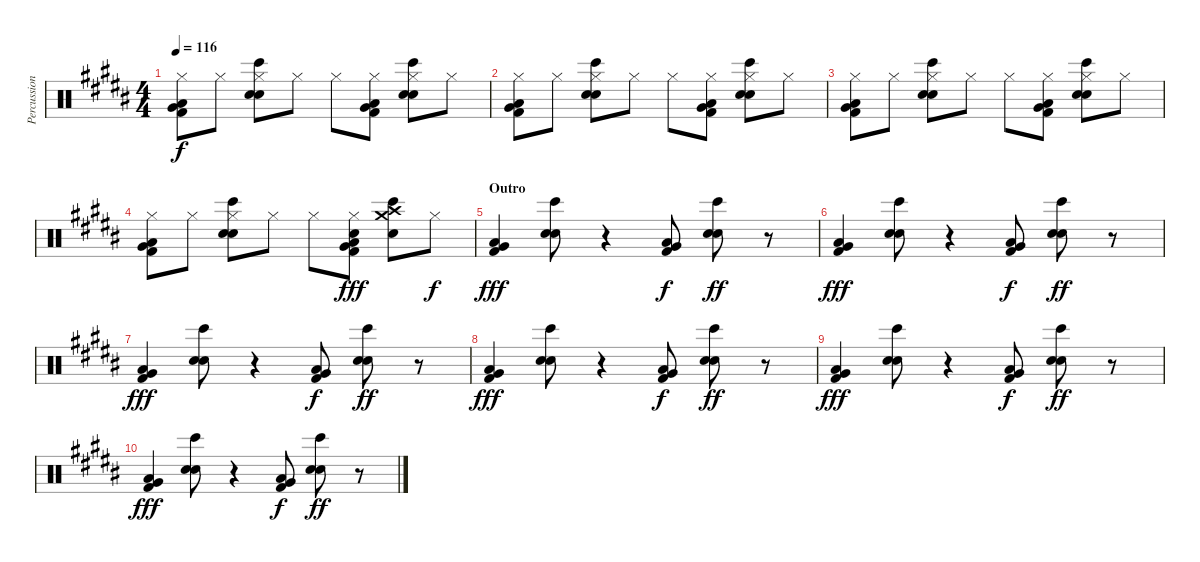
\track ("Percussion" "Percussion") {instrument percussion}
\staff {score}
\articulation defaults
\ts (4 4)
\tempo 116
\clef neutral
\ks b
("Low Tom (hit)" "Very Low Tom (hit)" "Kick (hit) 2" "Hi-Hat (closed)").8{dy f} "Hi-Hat (closed)".8 ("Bongo High (hit)" "Hand Clap (hit)" "Snare (hit) 2" "Hi-Hat (closed)").8 "Hi-Hat (closed)".8 "Hi-Hat (closed)".8 ("Low Tom (hit)" "Very Low Tom (hit)" "Kick (hit) 2" "Hi-Hat (closed)").8 ("Bongo High (hit)" "Hand Clap (hit)" "Snare (hit) 2" "Hi-Hat (closed)").8 "Hi-Hat (closed)".8 |
("Low Tom (hit)" "Very Low Tom (hit)" "Kick (hit) 2" "Hi-Hat (closed)").8 "Hi-Hat (closed)".8 ("Bongo High (hit)" "Hand Clap (hit)" "Snare (hit) 2" "Hi-Hat (closed)").8 "Hi-Hat (closed)".8 "Hi-Hat (closed)".8 ("Low Tom (hit)" "Very Low Tom (hit)" "Kick (hit) 2" "Hi-Hat (closed)").8 ("Bongo High (hit)" "Hand Clap (hit)" "Snare (hit) 2" "Hi-Hat (closed)").8 "Hi-Hat (closed)".8 |
("Low Tom (hit)" "Very Low Tom (hit)" "Kick (hit) 2" "Hi-Hat (closed)").8 "Hi-Hat (closed)".8 ("Bongo High (hit)" "Hand Clap (hit)" "Snare (hit) 2" "Hi-Hat (closed)").8 "Hi-Hat (closed)".8 "Hi-Hat (closed)".8 ("Low Tom (hit)" "Very Low Tom (hit)" "Kick (hit) 2" "Hi-Hat (closed)").8 ("Bongo High (hit)" "Hand Clap (hit)" "Snare (hit) 2" "Hi-Hat (closed)").8 "Hi-Hat (closed)".8 |
("Low Tom (hit)" "Very Low Tom (hit)" "Kick (hit) 2" "Hi-Hat (closed)").8 "Hi-Hat (closed)".8 ("Bongo High (hit)" "Hand Clap (hit)" "Snare (hit) 2" "Hi-Hat (closed)").8 "Hi-Hat (closed)".8 "Hi-Hat (closed)".8 ("Low Tom (hit)" "Very Low Tom (hit)" "Kick (hit) 2" "Hi-Hat (closed)" "Hand Clap (hit)").8{dy fff} ("Bongo High (hit)" "Hand Clap (hit)" "Crash medium (hit)" "Crash high (hit)").8 "Hi-Hat (closed)".8{dy f} |
\section ("" "Outro")
("Low Tom (hit)" "Very Low Tom (hit)" "Kick (hit) 2").4{dy fff} ("Bongo High (hit)" "Hand Clap (hit)" "Hand Clap (hit)").8 r.4 ("Low Tom (hit)" "Very Low Tom (hit)" "Kick (hit) 2").8{dy f} ("Bongo High (hit)" "Hand Clap (hit)" "Hand Clap (hit)").8{dy ff} r.8 |
("Low Tom (hit)" "Very Low Tom (hit)" "Kick (hit) 2").4{dy fff} ("Bongo High (hit)" "Hand Clap (hit)" "Hand Clap (hit)").8 r.4 ("Low Tom (hit)" "Very Low Tom (hit)" "Kick (hit) 2").8{dy f} ("Bongo High (hit)" "Hand Clap (hit)" "Hand Clap (hit)").8{dy ff} r.8 |
("Low Tom (hit)" "Very Low Tom (hit)" "Kick (hit) 2").4{dy fff} ("Bongo High (hit)" "Hand Clap (hit)" "Hand Clap (hit)").8 r.4 ("Low Tom (hit)" "Very Low Tom (hit)" "Kick (hit) 2").8{dy f} ("Bongo High (hit)" "Hand Clap (hit)" "Hand Clap (hit)").8{dy ff} r.8 |
("Low Tom (hit)" "Very Low Tom (hit)" "Kick (hit) 2").4{dy fff} ("Bongo High (hit)" "Hand Clap (hit)" "Hand Clap (hit)").8 r.4 ("Low Tom (hit)" "Very Low Tom (hit)" "Kick (hit) 2").8{dy f} ("Bongo High (hit)" "Hand Clap (hit)" "Hand Clap (hit)").8{dy ff} r.8 |
("Low Tom (hit)" "Very Low Tom (hit)" "Kick (hit) 2").4{dy fff} ("Bongo High (hit)" "Hand Clap (hit)" "Hand Clap (hit)").8 r.4 ("Low Tom (hit)" "Very Low Tom (hit)" "Kick (hit) 2").8{dy f} ("Bongo High (hit)" "Hand Clap (hit)" "Hand Clap (hit)").8{dy ff} r.8 |
("Low Tom (hit)" "Very Low Tom (hit)" "Kick (hit) 2").4{dy fff} ("Bongo High (hit)" "Hand Clap (hit)" "Hand Clap (hit)").8 r.4 ("Low Tom (hit)" "Very Low Tom (hit)" "Kick (hit) 2").8{dy f} ("Bongo High (hit)" "Hand Clap (hit)" "Hand Clap (hit)").8{dy ff} r.8
